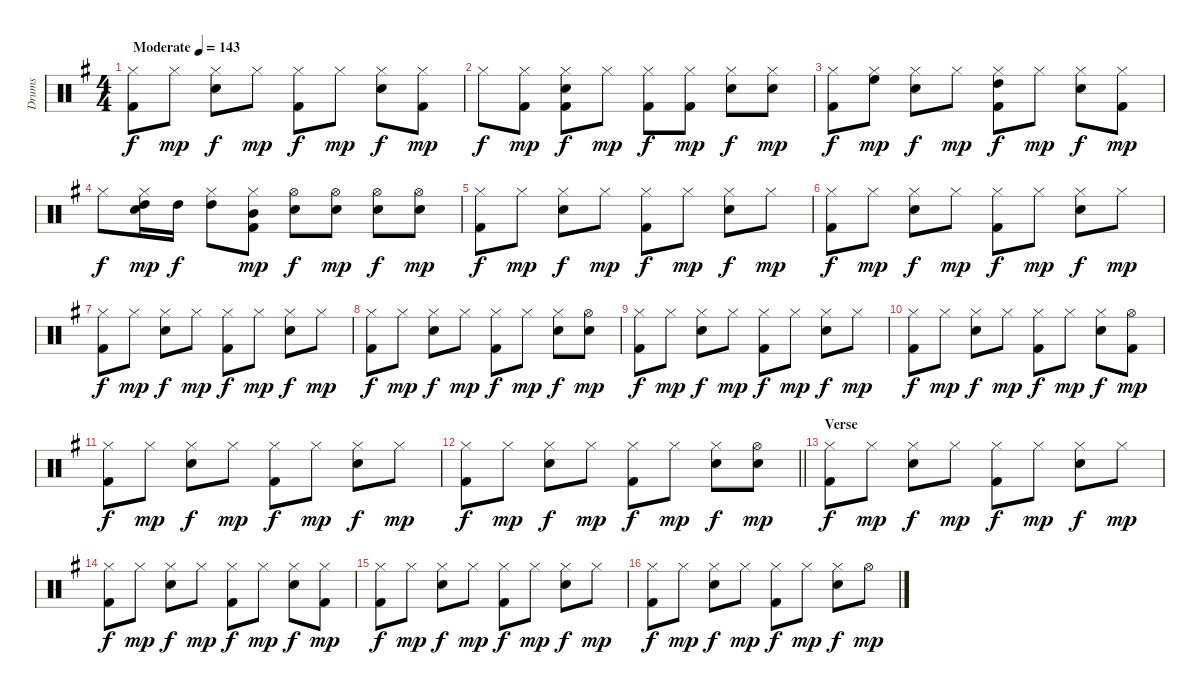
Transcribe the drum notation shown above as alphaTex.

\track ("Drums" "Drums") {instrument percussion}
\staff {score}
\articulation defaults
\ts (4 4)
\tempo (143 "Moderate")
\clef neutral
\ks g
("Hi-Hat (closed)" "Kick (hit) 2").8{dy f} "Hi-Hat (closed)".8{dy mp} ("Hi-Hat (closed)" "Electric Snare (hit)").8{dy f} "Hi-Hat (closed)".8{dy mp} ("Hi-Hat (closed)" "Kick (hit) 2").8{dy f} "Hi-Hat (closed)".8{dy mp} ("Hi-Hat (closed)" "Electric Snare (hit)").8{dy f} ("Hi-Hat (closed)" "Kick (hit) 2").8{dy mp} |
"Hi-Hat (closed)".8{dy f} ("Hi-Hat (closed)" "Kick (hit) 2").8{dy mp} ("Hi-Hat (closed)" "Electric Snare (hit)" "Kick (hit) 2").8{dy f} "Hi-Hat (closed)".8{dy mp} ("Hi-Hat (closed)" "Kick (hit) 2").8{dy f} ("Hi-Hat (closed)" "Kick (hit) 2").8{dy mp} ("Hi-Hat (closed)" "Electric Snare (hit)").8{dy f} ("Hi-Hat (closed)" "Electric Snare (hit)").8{dy mp} |
("Hi-Hat (closed)" "Kick (hit) 2").8{dy f} ("Hi-Hat (closed)" "High Floor Tom (hit)").8{dy mp} ("Hi-Hat (closed)" "Electric Snare (hit)").8{dy f} "Hi-Hat (closed)".8{dy mp} ("Hi-Hat (closed)" "High Tom (hit)" "Kick (hit) 2").8{dy f} "Hi-Hat (closed)".8{dy mp} ("Hi-Hat (closed)" "Electric Snare (hit)").8{dy f} ("Hi-Hat (closed)" "Kick (hit) 2").8{dy mp} |
"Hi-Hat (closed)".8{dy f} ("Hi-Hat (closed)" "Electric Snare (hit)" "High Tom (hit)").16{dy mp} "High Tom (hit)".16{dy f} ("Hi-Hat (closed)" "High Tom (hit)").8 ("Hi-Hat (closed)" "Mid Tom (hit)" "Kick (hit) 2").8{dy mp} ("Hi-Hat (open)" "Electric Snare (hit)").8{dy f} ("Hi-Hat (open)" "Electric Snare (hit)").8{dy mp} ("Hi-Hat (open)" "Electric Snare (hit)").8{dy f} ("Hi-Hat (open)" "Electric Snare (hit)").8{dy mp} |
("Hi-Hat (closed)" "Kick (hit) 2").8{dy f} "Hi-Hat (closed)".8{dy mp} ("Hi-Hat (closed)" "Electric Snare (hit)").8{dy f} "Hi-Hat (closed)".8{dy mp} ("Hi-Hat (closed)" "Kick (hit) 2").8{dy f} "Hi-Hat (closed)".8{dy mp} ("Hi-Hat (closed)" "Electric Snare (hit)").8{dy f} "Hi-Hat (closed)".8{dy mp} |
("Hi-Hat (closed)" "Kick (hit) 2").8{dy f} "Hi-Hat (closed)".8{dy mp} ("Hi-Hat (closed)" "Electric Snare (hit)").8{dy f} "Hi-Hat (closed)".8{dy mp} ("Hi-Hat (closed)" "Kick (hit) 2").8{dy f} "Hi-Hat (closed)".8{dy mp} ("Hi-Hat (closed)" "Electric Snare (hit)").8{dy f} "Hi-Hat (closed)".8{dy mp} |
("Hi-Hat (closed)" "Kick (hit) 2").8{dy f} "Hi-Hat (closed)".8{dy mp} ("Hi-Hat (closed)" "Electric Snare (hit)").8{dy f} "Hi-Hat (closed)".8{dy mp} ("Hi-Hat (closed)" "Kick (hit) 2").8{dy f} "Hi-Hat (closed)".8{dy mp} ("Hi-Hat (closed)" "Electric Snare (hit)").8{dy f} "Hi-Hat (closed)".8{dy mp} |
("Hi-Hat (closed)" "Kick (hit) 2").8{dy f} "Hi-Hat (closed)".8{dy mp} ("Hi-Hat (closed)" "Electric Snare (hit)").8{dy f} "Hi-Hat (closed)".8{dy mp} ("Hi-Hat (closed)" "Kick (hit) 2").8{dy f} "Hi-Hat (closed)".8{dy mp} ("Hi-Hat (closed)" "Electric Snare (hit)").8{dy f} ("Hi-Hat (open)" "Electric Snare (hit)").8{dy mp} |
("Hi-Hat (closed)" "Kick (hit) 2").8{dy f} "Hi-Hat (closed)".8{dy mp} ("Hi-Hat (closed)" "Electric Snare (hit)").8{dy f} "Hi-Hat (closed)".8{dy mp} ("Hi-Hat (closed)" "Kick (hit) 2").8{dy f} "Hi-Hat (closed)".8{dy mp} ("Hi-Hat (closed)" "Electric Snare (hit)").8{dy f} "Hi-Hat (closed)".8{dy mp} |
("Hi-Hat (closed)" "Kick (hit) 2").8{dy f} "Hi-Hat (closed)".8{dy mp} ("Hi-Hat (closed)" "Electric Snare (hit)").8{dy f} "Hi-Hat (closed)".8{dy mp} ("Hi-Hat (closed)" "Kick (hit) 2").8{dy f} "Hi-Hat (closed)".8{dy mp} ("Hi-Hat (closed)" "Electric Snare (hit)").8{dy f} ("Hi-Hat (open)" "Kick (hit) 2").8{dy mp} |
("Hi-Hat (closed)" "Kick (hit) 2").8{dy f} "Hi-Hat (closed)".8{dy mp} ("Hi-Hat (closed)" "Electric Snare (hit)").8{dy f} "Hi-Hat (closed)".8{dy mp} ("Hi-Hat (closed)" "Kick (hit) 2").8{dy f} "Hi-Hat (closed)".8{dy mp} ("Hi-Hat (closed)" "Electric Snare (hit)").8{dy f} "Hi-Hat (closed)".8{dy mp} |
\barLineRight lightlight
("Hi-Hat (closed)" "Kick (hit) 2").8{dy f} "Hi-Hat (closed)".8{dy mp} ("Hi-Hat (closed)" "Electric Snare (hit)").8{dy f} "Hi-Hat (closed)".8{dy mp} ("Hi-Hat (closed)" "Kick (hit) 2").8{dy f} "Hi-Hat (closed)".8{dy mp} ("Hi-Hat (closed)" "Electric Snare (hit)").8{dy f} ("Hi-Hat (open)" "Electric Snare (hit)").8{dy mp} |
\section ("" "Verse")
("Hi-Hat (closed)" "Kick (hit) 2").8{dy f} "Hi-Hat (closed)".8{dy mp} ("Hi-Hat (closed)" "Electric Snare (hit)").8{dy f} "Hi-Hat (closed)".8{dy mp} ("Hi-Hat (closed)" "Kick (hit) 2").8{dy f} "Hi-Hat (closed)".8{dy mp} ("Hi-Hat (closed)" "Electric Snare (hit)").8{dy f} "Hi-Hat (closed)".8{dy mp} |
("Hi-Hat (closed)" "Kick (hit) 2").8{dy f} "Hi-Hat (closed)".8{dy mp} ("Hi-Hat (closed)" "Electric Snare (hit)").8{dy f} "Hi-Hat (closed)".8{dy mp} ("Hi-Hat (closed)" "Kick (hit) 2").8{dy f} "Hi-Hat (closed)".8{dy mp} ("Hi-Hat (closed)" "Electric Snare (hit)").8{dy f} ("Hi-Hat (closed)" "Kick (hit) 2").8{dy mp} |
("Hi-Hat (closed)" "Kick (hit) 2").8{dy f} "Hi-Hat (closed)".8{dy mp} ("Hi-Hat (closed)" "Electric Snare (hit)").8{dy f} "Hi-Hat (closed)".8{dy mp} ("Hi-Hat (closed)" "Kick (hit) 2").8{dy f} "Hi-Hat (closed)".8{dy mp} ("Hi-Hat (closed)" "Electric Snare (hit)").8{dy f} "Hi-Hat (closed)".8{dy mp} |
("Hi-Hat (closed)" "Kick (hit) 2").8{dy f} "Hi-Hat (closed)".8{dy mp} ("Hi-Hat (closed)" "Electric Snare (hit)").8{dy f} "Hi-Hat (closed)".8{dy mp} ("Hi-Hat (closed)" "Kick (hit) 2").8{dy f} "Hi-Hat (closed)".8{dy mp} ("Hi-Hat (closed)" "Electric Snare (hit)").8{dy f} "Hi-Hat (open)".8{dy mp}
